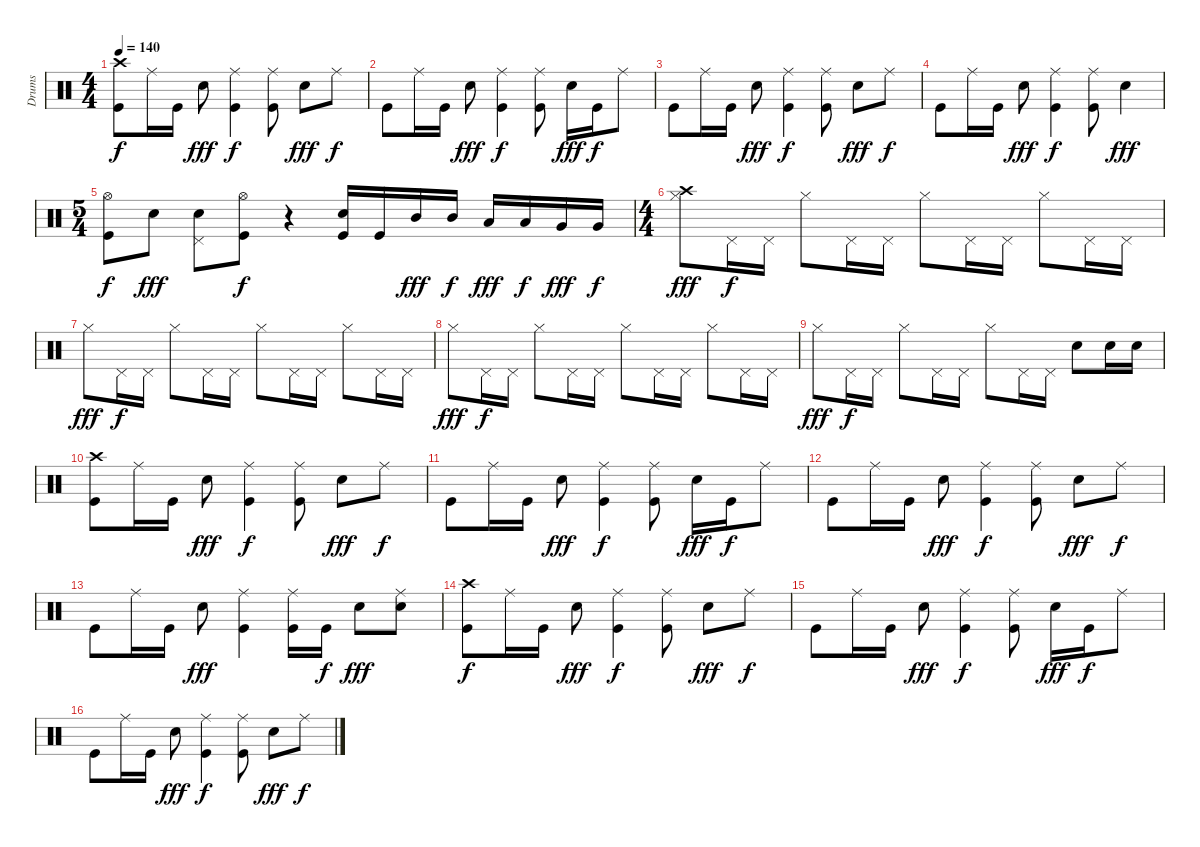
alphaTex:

\track ("Drums" "Drums") {instrument percussion}
\staff {score}
\articulation defaults
\ts (4 4)
\tempo 140
\clef neutral
\ks c
("Crash high (hit)" "Kick (hit)").8{dy f} "Ride (middle)".16 "Kick (hit)".16 "Electric Snare (hit)".8{dy fff} ("Ride (middle)" "Kick (hit)").4{dy f} ("Ride (middle)" "Kick (hit)").8 "Electric Snare (hit)".8{dy fff} "Ride (middle)".8{dy f} |
"Kick (hit)".8 "Ride (middle)".16 "Kick (hit)".16 "Electric Snare (hit)".8{dy fff} ("Ride (middle)" "Kick (hit)").4{dy f} ("Ride (middle)" "Kick (hit)").8 "Electric Snare (hit)".16{dy fff} "Kick (hit)".16{dy f} "Ride (middle)".8 |
"Kick (hit)".8 "Ride (middle)".16 "Kick (hit)".16 "Electric Snare (hit)".8{dy fff} ("Ride (middle)" "Kick (hit)").4{dy f} ("Ride (middle)" "Kick (hit)").8 "Electric Snare (hit)".8{dy fff} "Ride (middle)".8{dy f} |
"Kick (hit)".8 "Ride (middle)".16 "Kick (hit)".16 "Electric Snare (hit)".8{dy fff} ("Ride (middle)" "Kick (hit)").4{dy f} ("Ride (middle)" "Kick (hit)").8 "Electric Snare (hit)".4{dy fff} |
\ts (5 4)
("Hi-Hat (open)" "Kick (hit)").8{dy f} "Electric Snare (hit)".8{dy fff} ("Electric Snare (hit)" "Pedal Hi-Hat (hit)").8 ("Hi-Hat (open)" "Kick (hit)").8{dy f} r.4 ("Electric Snare (hit)" "Kick (hit)").16 "Kick (hit)".16 "Mid Tom (hit)".16{dy fff} "Mid Tom (hit)".16{dy f} "Low Tom (hit)".16{dy fff} "Low Tom (hit)".16{dy f} "Very Low Tom (hit)".16{dy fff} "Very Low Tom (hit)".16{dy f} |
\ts (4 4)
("Crash high (hit)" "Hi-Hat (closed)").8{dy fff} "Pedal Hi-Hat (hit)".16{dy f} "Pedal Hi-Hat (hit)".16 "Hi-Hat (closed)".8 "Pedal Hi-Hat (hit)".16 "Pedal Hi-Hat (hit)".16 "Hi-Hat (closed)".8 "Pedal Hi-Hat (hit)".16 "Pedal Hi-Hat (hit)".16 "Hi-Hat (closed)".8 "Pedal Hi-Hat (hit)".16 "Pedal Hi-Hat (hit)".16 |
"Hi-Hat (closed)".8{dy fff} "Pedal Hi-Hat (hit)".16{dy f} "Pedal Hi-Hat (hit)".16 "Hi-Hat (closed)".8 "Pedal Hi-Hat (hit)".16 "Pedal Hi-Hat (hit)".16 "Hi-Hat (closed)".8 "Pedal Hi-Hat (hit)".16 "Pedal Hi-Hat (hit)".16 "Hi-Hat (closed)".8 "Pedal Hi-Hat (hit)".16 "Pedal Hi-Hat (hit)".16 |
"Hi-Hat (closed)".8{dy fff} "Pedal Hi-Hat (hit)".16{dy f} "Pedal Hi-Hat (hit)".16 "Hi-Hat (closed)".8 "Pedal Hi-Hat (hit)".16 "Pedal Hi-Hat (hit)".16 "Hi-Hat (closed)".8 "Pedal Hi-Hat (hit)".16 "Pedal Hi-Hat (hit)".16 "Hi-Hat (closed)".8 "Pedal Hi-Hat (hit)".16 "Pedal Hi-Hat (hit)".16 |
"Hi-Hat (closed)".8{dy fff} "Pedal Hi-Hat (hit)".16{dy f} "Pedal Hi-Hat (hit)".16 "Hi-Hat (closed)".8 "Pedal Hi-Hat (hit)".16 "Pedal Hi-Hat (hit)".16 "Hi-Hat (closed)".8 "Pedal Hi-Hat (hit)".16 "Pedal Hi-Hat (hit)".16 "Electric Snare (hit)".8 "Electric Snare (hit)".16 "Electric Snare (hit)".16 |
("Crash high (hit)" "Kick (hit)").8 "Ride (middle)".16 "Kick (hit)".16 "Electric Snare (hit)".8{dy fff} ("Ride (middle)" "Kick (hit)").4{dy f} ("Ride (middle)" "Kick (hit)").8 "Electric Snare (hit)".8{dy fff} "Ride (middle)".8{dy f} |
"Kick (hit)".8 "Ride (middle)".16 "Kick (hit)".16 "Electric Snare (hit)".8{dy fff} ("Ride (middle)" "Kick (hit)").4{dy f} ("Ride (middle)" "Kick (hit)").8 "Electric Snare (hit)".16{dy fff} "Kick (hit)".16{dy f} "Ride (middle)".8 |
"Kick (hit)".8 "Ride (middle)".16 "Kick (hit)".16 "Electric Snare (hit)".8{dy fff} ("Ride (middle)" "Kick (hit)").4{dy f} ("Ride (middle)" "Kick (hit)").8 "Electric Snare (hit)".8{dy fff} "Ride (middle)".8{dy f} |
"Kick (hit)".8 "Ride (middle)".16 "Kick (hit)".16 "Electric Snare (hit)".8{dy fff} ("Ride (middle)" "Kick (hit)").4 ("Ride (middle)" "Kick (hit)").16 "Kick (hit)".16{dy f} "Electric Snare (hit)".8{dy fff} ("Electric Snare (hit)" "Ride (middle)").8 |
("Crash high (hit)" "Kick (hit)").8{dy f} "Ride (middle)".16 "Kick (hit)".16 "Electric Snare (hit)".8{dy fff} ("Ride (middle)" "Kick (hit)").4{dy f} ("Ride (middle)" "Kick (hit)").8 "Electric Snare (hit)".8{dy fff} "Ride (middle)".8{dy f} |
"Kick (hit)".8 "Ride (middle)".16 "Kick (hit)".16 "Electric Snare (hit)".8{dy fff} ("Ride (middle)" "Kick (hit)").4{dy f} ("Ride (middle)" "Kick (hit)").8 "Electric Snare (hit)".16{dy fff} "Kick (hit)".16{dy f} "Ride (middle)".8 |
"Kick (hit)".8 "Ride (middle)".16 "Kick (hit)".16 "Electric Snare (hit)".8{dy fff} ("Ride (middle)" "Kick (hit)").4{dy f} ("Ride (middle)" "Kick (hit)").8 "Electric Snare (hit)".8{dy fff} "Ride (middle)".8{dy f}
